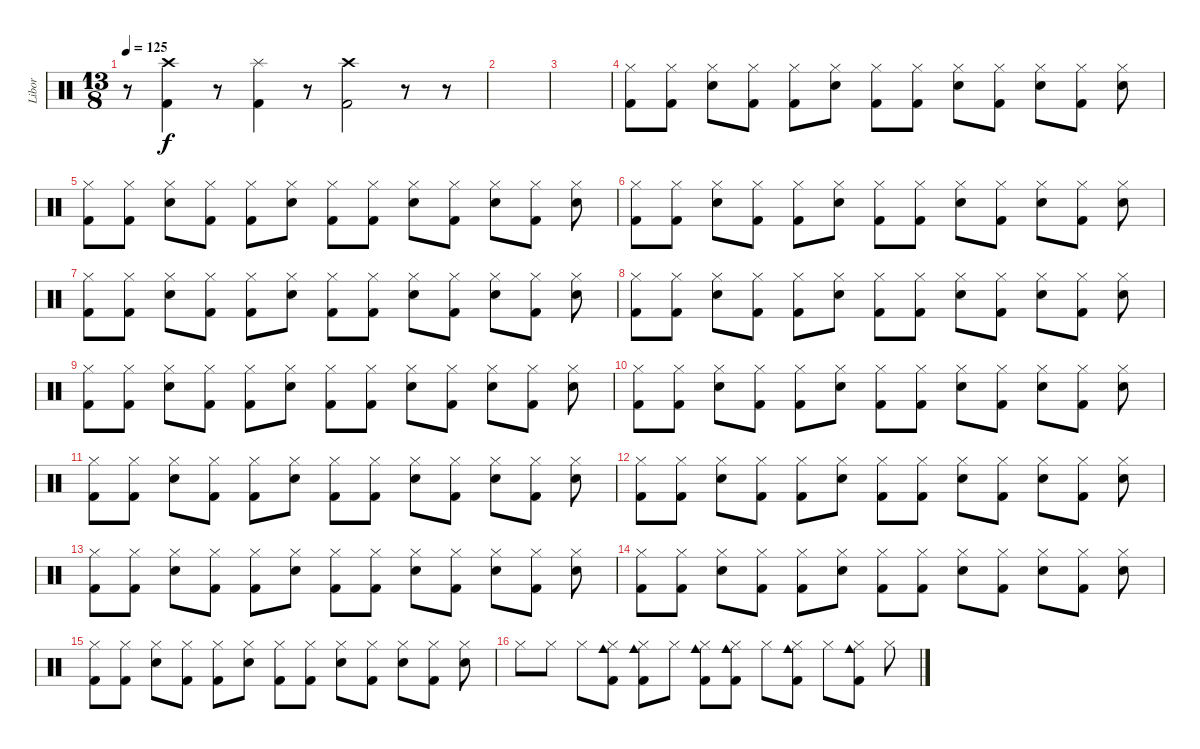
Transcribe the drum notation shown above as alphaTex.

\track ("Libor" "Libor") {instrument percussion}
\staff {score}
\articulation defaults
\ts (13 8)
\tempo 125
\clef neutral
\ks c
r.8{dy f} ("Crash high (hit)" "Kick (hit) 2").4 r.8 ("Splash (hit)" "Kick (hit) 2").4 r.8 ("Crash high (hit)" "Kick (hit) 2").2 r.8 r.8 |
|
|
("Hi-Hat (closed)" "Kick (hit) 2").8 ("Hi-Hat (closed)" "Kick (hit) 2").8 ("Hi-Hat (closed)" "Snare (hit) 2").8 ("Hi-Hat (closed)" "Kick (hit) 2").8 ("Hi-Hat (closed)" "Kick (hit) 2").8 ("Hi-Hat (closed)" "Snare (hit) 2").8 ("Hi-Hat (closed)" "Kick (hit) 2").8 ("Hi-Hat (closed)" "Kick (hit) 2").8 ("Hi-Hat (closed)" "Snare (hit) 2").8 ("Hi-Hat (closed)" "Kick (hit) 2").8 ("Hi-Hat (closed)" "Snare (hit) 2").8 ("Hi-Hat (closed)" "Kick (hit) 2").8 ("Hi-Hat (closed)" "Snare (hit) 2").8 |
("Hi-Hat (closed)" "Kick (hit) 2").8 ("Hi-Hat (closed)" "Kick (hit) 2").8 ("Hi-Hat (closed)" "Snare (hit) 2").8 ("Hi-Hat (closed)" "Kick (hit) 2").8 ("Hi-Hat (closed)" "Kick (hit) 2").8 ("Hi-Hat (closed)" "Snare (hit) 2").8 ("Hi-Hat (closed)" "Kick (hit) 2").8 ("Hi-Hat (closed)" "Kick (hit) 2").8 ("Hi-Hat (closed)" "Snare (hit) 2").8 ("Hi-Hat (closed)" "Kick (hit) 2").8 ("Hi-Hat (closed)" "Snare (hit) 2").8 ("Hi-Hat (closed)" "Kick (hit) 2").8 ("Hi-Hat (closed)" "Snare (hit) 2").8 |
("Hi-Hat (closed)" "Kick (hit) 2").8 ("Hi-Hat (closed)" "Kick (hit) 2").8 ("Hi-Hat (closed)" "Snare (hit) 2").8 ("Hi-Hat (closed)" "Kick (hit) 2").8 ("Hi-Hat (closed)" "Kick (hit) 2").8 ("Hi-Hat (closed)" "Snare (hit) 2").8 ("Hi-Hat (closed)" "Kick (hit) 2").8 ("Hi-Hat (closed)" "Kick (hit) 2").8 ("Hi-Hat (closed)" "Snare (hit) 2").8 ("Hi-Hat (closed)" "Kick (hit) 2").8 ("Hi-Hat (closed)" "Snare (hit) 2").8 ("Hi-Hat (closed)" "Kick (hit) 2").8 ("Hi-Hat (closed)" "Snare (hit) 2").8 |
("Hi-Hat (closed)" "Kick (hit) 2").8 ("Hi-Hat (closed)" "Kick (hit) 2").8 ("Hi-Hat (closed)" "Snare (hit) 2").8 ("Hi-Hat (closed)" "Kick (hit) 2").8 ("Hi-Hat (closed)" "Kick (hit) 2").8 ("Hi-Hat (closed)" "Snare (hit) 2").8 ("Hi-Hat (closed)" "Kick (hit) 2").8 ("Hi-Hat (closed)" "Kick (hit) 2").8 ("Hi-Hat (closed)" "Snare (hit) 2").8 ("Hi-Hat (closed)" "Kick (hit) 2").8 ("Hi-Hat (closed)" "Snare (hit) 2").8 ("Hi-Hat (closed)" "Kick (hit) 2").8 ("Hi-Hat (closed)" "Snare (hit) 2").8 |
("Hi-Hat (closed)" "Kick (hit) 2").8 ("Hi-Hat (closed)" "Kick (hit) 2").8 ("Hi-Hat (closed)" "Snare (hit) 2").8 ("Hi-Hat (closed)" "Kick (hit) 2").8 ("Hi-Hat (closed)" "Kick (hit) 2").8 ("Hi-Hat (closed)" "Snare (hit) 2").8 ("Hi-Hat (closed)" "Kick (hit) 2").8 ("Hi-Hat (closed)" "Kick (hit) 2").8 ("Hi-Hat (closed)" "Snare (hit) 2").8 ("Hi-Hat (closed)" "Kick (hit) 2").8 ("Hi-Hat (closed)" "Snare (hit) 2").8 ("Hi-Hat (closed)" "Kick (hit) 2").8 ("Hi-Hat (closed)" "Snare (hit) 2").8 |
("Hi-Hat (closed)" "Kick (hit) 2").8 ("Hi-Hat (closed)" "Kick (hit) 2").8 ("Hi-Hat (closed)" "Snare (hit) 2").8 ("Hi-Hat (closed)" "Kick (hit) 2").8 ("Hi-Hat (closed)" "Kick (hit) 2").8 ("Hi-Hat (closed)" "Snare (hit) 2").8 ("Hi-Hat (closed)" "Kick (hit) 2").8 ("Hi-Hat (closed)" "Kick (hit) 2").8 ("Hi-Hat (closed)" "Snare (hit) 2").8 ("Hi-Hat (closed)" "Kick (hit) 2").8 ("Hi-Hat (closed)" "Snare (hit) 2").8 ("Hi-Hat (closed)" "Kick (hit) 2").8 ("Hi-Hat (closed)" "Snare (hit) 2").8 |
("Hi-Hat (closed)" "Kick (hit) 2").8 ("Hi-Hat (closed)" "Kick (hit) 2").8 ("Hi-Hat (closed)" "Snare (hit) 2").8 ("Hi-Hat (closed)" "Kick (hit) 2").8 ("Hi-Hat (closed)" "Kick (hit) 2").8 ("Hi-Hat (closed)" "Snare (hit) 2").8 ("Hi-Hat (closed)" "Kick (hit) 2").8 ("Hi-Hat (closed)" "Kick (hit) 2").8 ("Hi-Hat (closed)" "Snare (hit) 2").8 ("Hi-Hat (closed)" "Kick (hit) 2").8 ("Hi-Hat (closed)" "Snare (hit) 2").8 ("Hi-Hat (closed)" "Kick (hit) 2").8 ("Hi-Hat (closed)" "Snare (hit) 2").8 |
("Hi-Hat (closed)" "Kick (hit) 2").8 ("Hi-Hat (closed)" "Kick (hit) 2").8 ("Hi-Hat (closed)" "Snare (hit) 2").8 ("Hi-Hat (closed)" "Kick (hit) 2").8 ("Hi-Hat (closed)" "Kick (hit) 2").8 ("Hi-Hat (closed)" "Snare (hit) 2").8 ("Hi-Hat (closed)" "Kick (hit) 2").8 ("Hi-Hat (closed)" "Kick (hit) 2").8 ("Hi-Hat (closed)" "Snare (hit) 2").8 ("Hi-Hat (closed)" "Kick (hit) 2").8 ("Hi-Hat (closed)" "Snare (hit) 2").8 ("Hi-Hat (closed)" "Kick (hit) 2").8 ("Hi-Hat (closed)" "Snare (hit) 2").8 |
("Hi-Hat (closed)" "Kick (hit) 2").8 ("Hi-Hat (closed)" "Kick (hit) 2").8 ("Hi-Hat (closed)" "Snare (hit) 2").8 ("Hi-Hat (closed)" "Kick (hit) 2").8 ("Hi-Hat (closed)" "Kick (hit) 2").8 ("Hi-Hat (closed)" "Snare (hit) 2").8 ("Hi-Hat (closed)" "Kick (hit) 2").8 ("Hi-Hat (closed)" "Kick (hit) 2").8 ("Hi-Hat (closed)" "Snare (hit) 2").8 ("Hi-Hat (closed)" "Kick (hit) 2").8 ("Hi-Hat (closed)" "Snare (hit) 2").8 ("Hi-Hat (closed)" "Kick (hit) 2").8 ("Hi-Hat (closed)" "Snare (hit) 2").8 |
("Hi-Hat (closed)" "Kick (hit) 2").8 ("Hi-Hat (closed)" "Kick (hit) 2").8 ("Hi-Hat (closed)" "Snare (hit) 2").8 ("Hi-Hat (closed)" "Kick (hit) 2").8 ("Hi-Hat (closed)" "Kick (hit) 2").8 ("Hi-Hat (closed)" "Snare (hit) 2").8 ("Hi-Hat (closed)" "Kick (hit) 2").8 ("Hi-Hat (closed)" "Kick (hit) 2").8 ("Hi-Hat (closed)" "Snare (hit) 2").8 ("Hi-Hat (closed)" "Kick (hit) 2").8 ("Hi-Hat (closed)" "Snare (hit) 2").8 ("Hi-Hat (closed)" "Kick (hit) 2").8 ("Hi-Hat (closed)" "Snare (hit) 2").8 |
("Hi-Hat (closed)" "Kick (hit) 2").8 ("Hi-Hat (closed)" "Kick (hit) 2").8 ("Hi-Hat (closed)" "Snare (hit) 2").8 ("Hi-Hat (closed)" "Kick (hit) 2").8 ("Hi-Hat (closed)" "Kick (hit) 2").8 ("Hi-Hat (closed)" "Snare (hit) 2").8 ("Hi-Hat (closed)" "Kick (hit) 2").8 ("Hi-Hat (closed)" "Kick (hit) 2").8 ("Hi-Hat (closed)" "Snare (hit) 2").8 ("Hi-Hat (closed)" "Kick (hit) 2").8 ("Hi-Hat (closed)" "Snare (hit) 2").8 ("Hi-Hat (closed)" "Kick (hit) 2").8 ("Hi-Hat (closed)" "Snare (hit) 2").8 |
("Hi-Hat (closed)" "Kick (hit) 2").8 ("Hi-Hat (closed)" "Kick (hit) 2").8 ("Hi-Hat (closed)" "Snare (hit) 2").8 ("Hi-Hat (closed)" "Kick (hit) 2").8 ("Hi-Hat (closed)" "Kick (hit) 2").8 ("Hi-Hat (closed)" "Snare (hit) 2").8 ("Hi-Hat (closed)" "Kick (hit) 2").8 ("Hi-Hat (closed)" "Kick (hit) 2").8 ("Hi-Hat (closed)" "Snare (hit) 2").8 ("Hi-Hat (closed)" "Kick (hit) 2").8 ("Hi-Hat (closed)" "Snare (hit) 2").8 ("Hi-Hat (closed)" "Kick (hit) 2").8 ("Hi-Hat (closed)" "Snare (hit) 2").8 |
"Hi-Hat (closed)".8 "Hi-Hat (closed)".8 "Hi-Hat (closed)".8 ("Cowbell medium (hit)" "Hi-Hat (closed)" "Kick (hit) 2").8 ("Cowbell medium (hit)" "Hi-Hat (closed)" "Kick (hit) 2").8 "Hi-Hat (closed)".8 ("Cowbell medium (hit)" "Hi-Hat (closed)" "Kick (hit) 2").8 ("Cowbell medium (hit)" "Hi-Hat (closed)" "Kick (hit) 2").8 "Hi-Hat (closed)".8 ("Cowbell medium (hit)" "Hi-Hat (closed)" "Kick (hit) 2").8 "Hi-Hat (closed)".8 ("Cowbell medium (hit)" "Hi-Hat (closed)" "Kick (hit) 2").8 "Hi-Hat (closed)".8
